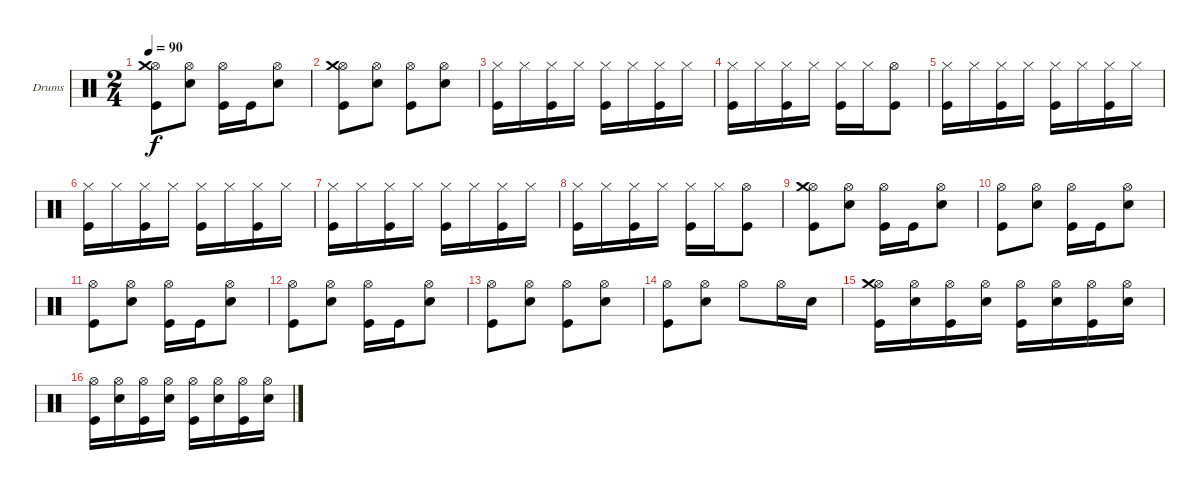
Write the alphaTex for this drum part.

\bracketExtendMode groupsimilarinstruments
\firstSystemTrackNameOrientation horizontal
\otherSystemsTrackNameOrientation horizontal
\track ("Барабаны" "Drums") {instrument percussion}
\staff {score}
\articulation defaults
\ts (2 4)
\tempo 90
\clef neutral
\ks c
("Kick (hit)" "Hi-Hat (open)" "Crash medium (hit)").8{dy f} ("Snare (hit) 2" "Hi-Hat (open)").8 ("Kick (hit)" "Hi-Hat (open)").16 "Kick (hit)".16 ("Snare (hit) 2" "Hi-Hat (open)").8 |
("Kick (hit)" "Hi-Hat (open)" "Crash medium (hit)").8 ("Snare (hit) 2" "Hi-Hat (open)").8 ("Kick (hit)" "Hi-Hat (open)").8 ("Snare (hit) 2" "Hi-Hat (open)").8 |
("Kick (hit)" "Hi-Hat (closed)").16 "Hi-Hat (closed)".16 ("Kick (hit)" "Hi-Hat (closed)").16 "Hi-Hat (closed)".16 ("Hi-Hat (closed)" "Kick (hit)").16 "Hi-Hat (closed)".16 ("Hi-Hat (closed)" "Kick (hit)").16 "Hi-Hat (closed)".16 |
("Hi-Hat (closed)" "Kick (hit)").16 "Hi-Hat (closed)".16 ("Hi-Hat (closed)" "Kick (hit)").16 "Hi-Hat (closed)".16 ("Hi-Hat (closed)" "Kick (hit)").16 "Hi-Hat (closed)".16 ("Hi-Hat (open)" "Kick (hit)").8 |
("Kick (hit)" "Hi-Hat (closed)").16 "Hi-Hat (closed)".16 ("Kick (hit)" "Hi-Hat (closed)").16 "Hi-Hat (closed)".16 ("Hi-Hat (closed)" "Kick (hit)").16 "Hi-Hat (closed)".16 ("Hi-Hat (closed)" "Kick (hit)").16 "Hi-Hat (closed)".16 |
("Kick (hit)" "Hi-Hat (closed)").16 "Hi-Hat (closed)".16 ("Kick (hit)" "Hi-Hat (closed)").16 "Hi-Hat (closed)".16 ("Hi-Hat (closed)" "Kick (hit)").16 "Hi-Hat (closed)".16 ("Hi-Hat (closed)" "Kick (hit)").16 "Hi-Hat (closed)".16 |
("Kick (hit)" "Hi-Hat (closed)").16 "Hi-Hat (closed)".16 ("Kick (hit)" "Hi-Hat (closed)").16 "Hi-Hat (closed)".16 ("Hi-Hat (closed)" "Kick (hit)").16 "Hi-Hat (closed)".16 ("Hi-Hat (closed)" "Kick (hit)").16 "Hi-Hat (closed)".16 |
("Kick (hit)" "Hi-Hat (closed)").16 "Hi-Hat (closed)".16 ("Kick (hit)" "Hi-Hat (closed)").16 "Hi-Hat (closed)".16 ("Hi-Hat (closed)" "Kick (hit)").16 "Hi-Hat (closed)".16 ("Hi-Hat (open)" "Kick (hit)").8 |
("Kick (hit)" "Hi-Hat (open)" "Crash medium (hit)").8 ("Snare (hit) 2" "Hi-Hat (open)").8 ("Kick (hit)" "Hi-Hat (open)").16 "Kick (hit)".16 ("Hi-Hat (open)" "Snare (hit) 2").8 |
("Kick (hit)" "Hi-Hat (open)").8 ("Snare (hit) 2" "Hi-Hat (open)").8 ("Kick (hit)" "Hi-Hat (open)").16 "Kick (hit)".16 ("Snare (hit) 2" "Hi-Hat (open)").8 |
("Kick (hit)" "Hi-Hat (open)").8 ("Snare (hit) 2" "Hi-Hat (open)").8 ("Kick (hit)" "Hi-Hat (open)").16 "Kick (hit)".16 ("Snare (hit) 2" "Hi-Hat (open)").8 |
("Kick (hit)" "Hi-Hat (open)").8 ("Snare (hit) 2" "Hi-Hat (open)").8 ("Kick (hit)" "Hi-Hat (open)").16 "Kick (hit)".16 ("Snare (hit) 2" "Hi-Hat (open)").8 |
("Kick (hit)" "Hi-Hat (open)").8 ("Snare (hit) 2" "Hi-Hat (open)").8 ("Kick (hit)" "Hi-Hat (open)").8 ("Snare (hit) 2" "Hi-Hat (open)").8 |
("Kick (hit)" "Hi-Hat (open)").8 ("Snare (hit) 2" "Hi-Hat (open)").8 "Hi-Hat (open)".8 "Hi-Hat (open)".16 "Snare (hit) 2".16 |
("Kick (hit)" "Hi-Hat (open)" "Crash medium (hit)").16 ("Snare (hit) 2" "Hi-Hat (open)").16 ("Kick (hit)" "Hi-Hat (open)").16 ("Snare (hit) 2" "Hi-Hat (open)").16 ("Kick (hit)" "Hi-Hat (open)").16 ("Snare (hit) 2" "Hi-Hat (open)").16 ("Kick (hit)" "Hi-Hat (open)").16 ("Snare (hit) 2" "Hi-Hat (open)").16 |
("Kick (hit)" "Hi-Hat (open)").16 ("Snare (hit) 2" "Hi-Hat (open)").16 ("Kick (hit)" "Hi-Hat (open)").16 ("Snare (hit) 2" "Hi-Hat (open)").16 ("Kick (hit)" "Hi-Hat (open)").16 ("Snare (hit) 2" "Hi-Hat (open)").16 ("Kick (hit)" "Hi-Hat (open)").16 ("Snare (hit) 2" "Hi-Hat (open)").16
